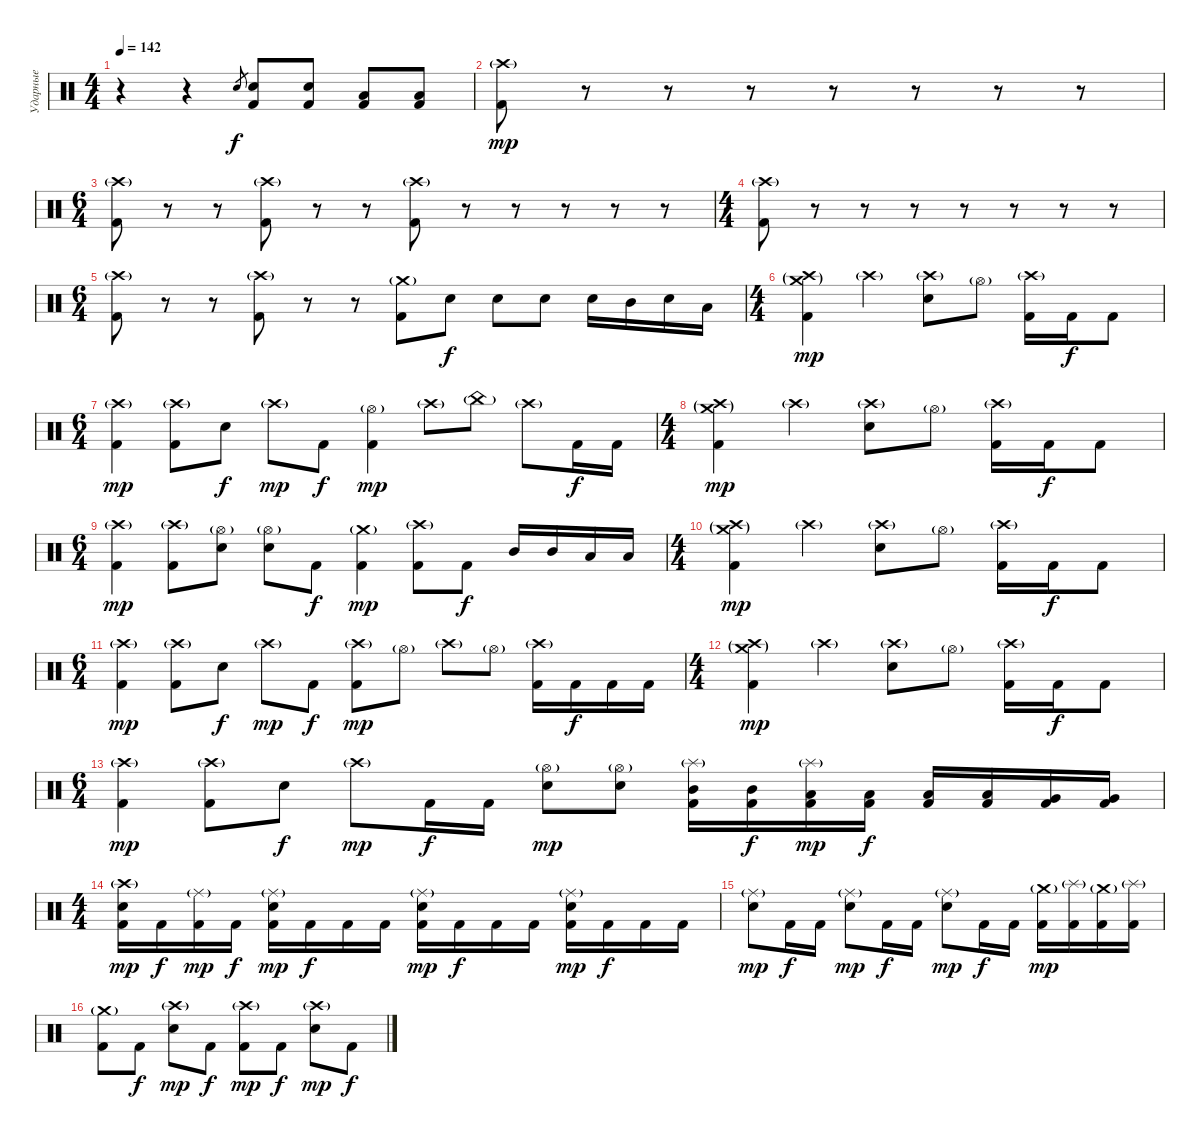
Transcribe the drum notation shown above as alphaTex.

\track ("Ударные" "Ударные") {instrument percussion}
\staff {score}
\articulation defaults
\ts (4 4)
\tempo 142
\clef neutral
\ks c
r.4{dy f} r.4 "Electric Snare (hit)".8{gr} ("Electric Snare (hit)" "Kick (hit) 2").8 ("Electric Snare (hit)" "Kick (hit) 2").8 ("Low Tom (hit)" "Kick (hit) 2").8 ("Low Tom (hit)" "Kick (hit) 2").8 |
("Crash high (hit)"{g} "Kick (hit) 2").8{dy mp} r.8{volume 0} r.8 r.8 r.8 r.8 r.8 r.8 |
\ts (6 4)
("Crash high (hit)"{g} "Kick (hit) 2").8{volume 16} r.8{volume 0} r.8 ("Crash high (hit)"{g} "Kick (hit) 2").8{volume 16} r.8{volume 0} r.8 ("Crash high (hit)"{g} "Kick (hit) 2").8{volume 16} r.8{volume 0} r.8 r.8 r.8 r.8 |
\ts (4 4)
("Crash high (hit)"{g} "Kick (hit) 2").8{volume 16} r.8{volume 0} r.8 r.8 r.8 r.8 r.8 r.8 |
\ts (6 4)
("Crash high (hit)"{g} "Kick (hit) 2").8{volume 16} r.8{volume 0} r.8 ("Crash high (hit)"{g} "Kick (hit) 2").8{volume 16} r.8{volume 0} r.8 ("Crash medium (hit)"{g} "Kick (hit) 2").8{volume 16} "Electric Snare (hit)".8{dy f} "Electric Snare (hit)".8 "Electric Snare (hit)".8 "Electric Snare (hit)".16 "Mid Tom (hit)".16 "Electric Snare (hit)".16 "Low Tom (hit)".16 |
\ts (4 4)
("Crash high (hit)"{g} "Crash medium (hit)"{g} "Kick (hit) 2").4{dy mp} "Crash high (hit)"{g}.4 ("Crash high (hit)"{g} "Electric Snare (hit)").8 "Hi-Hat (open)"{g}.8 ("Crash high (hit)"{g} "Kick (hit) 2").16 "Kick (hit) 2".16{dy f} "Kick (hit) 2".8 |
\ts (6 4)
("Crash high (hit)"{g} "Kick (hit) 2").4{dy mp} ("Crash high (hit)"{g} "Kick (hit) 2").8 "Electric Snare (hit)".8{dy f} "Crash high (hit)"{g}.8{dy mp} "Kick (hit) 2".8{dy f} ("Hi-Hat (open)"{g} "Kick (hit) 2").4{dy mp} "Crash high (hit)"{g}.8 "China (hit)"{g}.8 "Crash high (hit)"{g}.8 "Kick (hit) 2".16{dy f} "Kick (hit) 2".16 |
\ts (4 4)
("Crash high (hit)"{g} "Crash medium (hit)"{g} "Kick (hit) 2").4{dy mp} "Crash high (hit)"{g}.4 ("Crash high (hit)"{g} "Electric Snare (hit)").8 "Hi-Hat (open)"{g}.8 ("Crash high (hit)"{g} "Kick (hit) 2").16 "Kick (hit) 2".16{dy f} "Kick (hit) 2".8 |
\ts (6 4)
("Crash high (hit)"{g} "Kick (hit) 2").4{dy mp} ("Crash high (hit)"{g} "Kick (hit) 2").8 ("Hi-Hat (open)"{g} "Electric Snare (hit)").8 ("Hi-Hat (open)"{g} "Electric Snare (hit)").8 "Kick (hit) 2".8{dy f} ("Crash medium (hit)"{g} "Kick (hit) 2").4{dy mp} ("Crash high (hit)"{g} "Kick (hit) 2").8 "Kick (hit) 2".8{dy f} "Mid Tom (hit)".16 "Mid Tom (hit)".16 "Low Tom (hit)".16 "Low Tom (hit)".16 |
\ts (4 4)
("Crash high (hit)"{g} "Crash medium (hit)"{g} "Kick (hit) 2").4{dy mp} "Crash high (hit)"{g}.4 ("Crash high (hit)"{g} "Electric Snare (hit)").8 "Hi-Hat (open)"{g}.8 ("Crash high (hit)"{g} "Kick (hit) 2").16 "Kick (hit) 2".16{dy f} "Kick (hit) 2".8 |
\ts (6 4)
("Crash high (hit)"{g} "Kick (hit) 2").4{dy mp} ("Crash high (hit)"{g} "Kick (hit) 2").8 "Electric Snare (hit)".8{dy f} "Crash high (hit)"{g}.8{dy mp} "Kick (hit) 2".8{dy f} ("Crash high (hit)"{g} "Kick (hit) 2").8{dy mp} "Hi-Hat (open)"{g}.8 "Crash high (hit)"{g}.8 "Hi-Hat (open)"{g}.8 ("Crash high (hit)"{g} "Kick (hit) 2").16 "Kick (hit) 2".16{dy f} "Kick (hit) 2".16 "Kick (hit) 2".16 |
\ts (4 4)
("Crash high (hit)"{g} "Crash medium (hit)"{g} "Kick (hit) 2").4{dy mp} "Crash high (hit)"{g}.4 ("Crash high (hit)"{g} "Electric Snare (hit)").8 "Hi-Hat (open)"{g}.8 ("Crash high (hit)"{g} "Kick (hit) 2").16 "Kick (hit) 2".16{dy f} "Kick (hit) 2".8 |
\ts (6 4)
("Crash high (hit)"{g} "Kick (hit) 2").4{dy mp} ("Crash high (hit)"{g} "Kick (hit) 2").8 "Electric Snare (hit)".8{dy f} "Crash high (hit)"{g}.8{dy mp} "Kick (hit) 2".16{dy f} "Kick (hit) 2".16 ("Hi-Hat (open)"{g} "Electric Snare (hit)").8{dy mp} ("Hi-Hat (open)"{g} "Electric Snare (hit)").8 ("Splash (hit)"{g} "Mid Tom (hit)" "Kick (hit) 2").16 ("Mid Tom (hit)" "Kick (hit) 2").16{dy f} ("Splash (hit)"{g} "Low Tom (hit)" "Kick (hit) 2").16{dy mp} ("Low Tom (hit)" "Kick (hit) 2").16{dy f} ("Low Tom (hit)" "Kick (hit) 2").16 ("Low Tom (hit)" "Kick (hit) 2").16 ("Very Low Tom (hit)" "Kick (hit) 2").16 ("Very Low Tom (hit)" "Kick (hit) 2").16 |
\ts (4 4)
("Crash high (hit)"{g} "Electric Snare (hit)" "Kick (hit) 2").16{dy mp} "Kick (hit) 2".16{dy f} ("Ride (middle)"{g} "Kick (hit) 2").16{dy mp} "Kick (hit) 2".16{dy f} ("Ride (middle)"{g} "Electric Snare (hit)" "Kick (hit) 2").16{dy mp} "Kick (hit) 2".16{dy f} "Kick (hit) 2".16 "Kick (hit) 2".16 ("Ride (middle)"{g} "Electric Snare (hit)" "Kick (hit) 2").16{dy mp} "Kick (hit) 2".16{dy f} "Kick (hit) 2".16 "Kick (hit) 2".16 ("Ride (middle)"{g} "Electric Snare (hit)" "Kick (hit) 2").16{dy mp} "Kick (hit) 2".16{dy f} "Kick (hit) 2".16 "Kick (hit) 2".16 |
("Ride (middle)"{g} "Electric Snare (hit)").8{dy mp} "Kick (hit) 2".16{dy f} "Kick (hit) 2".16 ("Ride (middle)"{g} "Electric Snare (hit)").8{dy mp} "Kick (hit) 2".16{dy f} "Kick (hit) 2".16 ("Ride (middle)"{g} "Electric Snare (hit)").8{dy mp} "Kick (hit) 2".16{dy f} "Kick (hit) 2".16 ("Crash medium (hit)"{g} "Kick (hit) 2").16{dy mp} ("Splash (hit)"{g} "Kick (hit) 2").16 ("Crash medium (hit)"{g} "Kick (hit) 2").16 ("Splash (hit)"{g} "Kick (hit) 2").16 |
("Crash medium (hit)"{g} "Kick (hit) 2").8 "Kick (hit) 2".8{dy f} ("Crash high (hit)"{g} "Electric Snare (hit)").8{dy mp} "Kick (hit) 2".8{dy f} ("Crash high (hit)"{g} "Kick (hit) 2").8{dy mp} "Kick (hit) 2".8{dy f} ("Crash high (hit)"{g} "Electric Snare (hit)").8{dy mp} "Kick (hit) 2".8{dy f}
